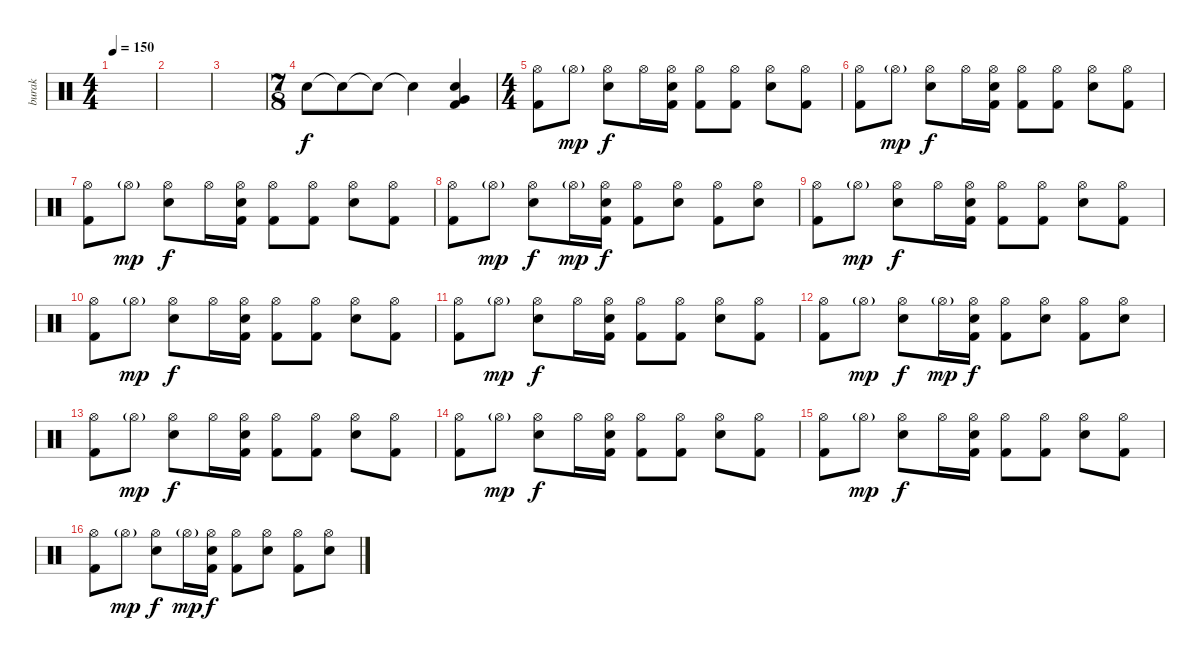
\track ("burak" "burak") {instrument percussion}
\staff {score}
\articulation defaults
\ts (4 4)
\tempo 150
\clef neutral
\ks c
|
|
|
\ts (7 8)
"Snare (hit)".8 "Snare (hit)"{t}.8 "Snare (hit)"{t}.8 "Snare (hit)"{t}.4 ("Electric Snare (hit)" "Kick (hit) 2" "Very Low Tom (hit)").4 |
\ts (4 4)
("Hi-Hat (open)" "Kick (hit) 2").8 "Hi-Hat (open)"{g}.8{dy mp} ("Hi-Hat (open)" "Electric Snare (hit)").8{dy f} "Hi-Hat (open)".16 ("Hi-Hat (open)" "Kick (hit) 2" "Electric Snare (hit)").16 ("Hi-Hat (open)" "Kick (hit) 2").8 ("Hi-Hat (open)" "Kick (hit) 2").8 ("Hi-Hat (open)" "Electric Snare (hit)").8 ("Hi-Hat (open)" "Kick (hit) 2").8 |
("Hi-Hat (open)" "Kick (hit) 2").8 "Hi-Hat (open)"{g}.8{dy mp} ("Hi-Hat (open)" "Electric Snare (hit)").8{dy f} "Hi-Hat (open)".16 ("Hi-Hat (open)" "Kick (hit) 2" "Electric Snare (hit)").16 ("Hi-Hat (open)" "Kick (hit) 2").8 ("Hi-Hat (open)" "Kick (hit) 2").8 ("Hi-Hat (open)" "Electric Snare (hit)").8 ("Hi-Hat (open)" "Kick (hit) 2").8 |
("Hi-Hat (open)" "Kick (hit) 2").8 "Hi-Hat (open)"{g}.8{dy mp} ("Hi-Hat (open)" "Electric Snare (hit)").8{dy f} "Hi-Hat (open)".16 ("Hi-Hat (open)" "Kick (hit) 2" "Electric Snare (hit)").16 ("Hi-Hat (open)" "Kick (hit) 2").8 ("Hi-Hat (open)" "Kick (hit) 2").8 ("Hi-Hat (open)" "Electric Snare (hit)").8 ("Hi-Hat (open)" "Kick (hit) 2").8 |
("Hi-Hat (open)" "Kick (hit) 2").8 "Hi-Hat (open)"{g}.8{dy mp} ("Hi-Hat (open)" "Electric Snare (hit)").8{dy f} "Hi-Hat (open)"{g}.16{dy mp} ("Hi-Hat (open)" "Kick (hit) 2" "Electric Snare (hit)").16{dy f} ("Hi-Hat (open)" "Kick (hit) 2").8 ("Hi-Hat (open)" "Electric Snare (hit)").8 ("Hi-Hat (open)" "Kick (hit) 2").8 ("Hi-Hat (open)" "Electric Snare (hit)").8 |
("Hi-Hat (open)" "Kick (hit) 2").8 "Hi-Hat (open)"{g}.8{dy mp} ("Hi-Hat (open)" "Electric Snare (hit)").8{dy f} "Hi-Hat (open)".16 ("Hi-Hat (open)" "Kick (hit) 2" "Electric Snare (hit)").16 ("Hi-Hat (open)" "Kick (hit) 2").8 ("Hi-Hat (open)" "Kick (hit) 2").8 ("Hi-Hat (open)" "Electric Snare (hit)").8 ("Hi-Hat (open)" "Kick (hit) 2").8 |
("Hi-Hat (open)" "Kick (hit) 2").8 "Hi-Hat (open)"{g}.8{dy mp} ("Hi-Hat (open)" "Electric Snare (hit)").8{dy f} "Hi-Hat (open)".16 ("Hi-Hat (open)" "Kick (hit) 2" "Electric Snare (hit)").16 ("Hi-Hat (open)" "Kick (hit) 2").8 ("Hi-Hat (open)" "Kick (hit) 2").8 ("Hi-Hat (open)" "Electric Snare (hit)").8 ("Hi-Hat (open)" "Kick (hit) 2").8 |
("Hi-Hat (open)" "Kick (hit) 2").8 "Hi-Hat (open)"{g}.8{dy mp} ("Hi-Hat (open)" "Electric Snare (hit)").8{dy f} "Hi-Hat (open)".16 ("Hi-Hat (open)" "Kick (hit) 2" "Electric Snare (hit)").16 ("Hi-Hat (open)" "Kick (hit) 2").8 ("Hi-Hat (open)" "Kick (hit) 2").8 ("Hi-Hat (open)" "Electric Snare (hit)").8 ("Hi-Hat (open)" "Kick (hit) 2").8 |
("Hi-Hat (open)" "Kick (hit) 2").8 "Hi-Hat (open)"{g}.8{dy mp} ("Hi-Hat (open)" "Electric Snare (hit)").8{dy f} "Hi-Hat (open)"{g}.16{dy mp} ("Hi-Hat (open)" "Kick (hit) 2" "Electric Snare (hit)").16{dy f} ("Hi-Hat (open)" "Kick (hit) 2").8 ("Hi-Hat (open)" "Electric Snare (hit)").8 ("Hi-Hat (open)" "Kick (hit) 2").8 ("Hi-Hat (open)" "Electric Snare (hit)").8 |
("Hi-Hat (open)" "Kick (hit) 2").8 "Hi-Hat (open)"{g}.8{dy mp} ("Hi-Hat (open)" "Electric Snare (hit)").8{dy f} "Hi-Hat (open)".16 ("Hi-Hat (open)" "Kick (hit) 2" "Electric Snare (hit)").16 ("Hi-Hat (open)" "Kick (hit) 2").8 ("Hi-Hat (open)" "Kick (hit) 2").8 ("Hi-Hat (open)" "Electric Snare (hit)").8 ("Hi-Hat (open)" "Kick (hit) 2").8 |
("Hi-Hat (open)" "Kick (hit) 2").8 "Hi-Hat (open)"{g}.8{dy mp} ("Hi-Hat (open)" "Electric Snare (hit)").8{dy f} "Hi-Hat (open)".16 ("Hi-Hat (open)" "Kick (hit) 2" "Electric Snare (hit)").16 ("Hi-Hat (open)" "Kick (hit) 2").8 ("Hi-Hat (open)" "Kick (hit) 2").8 ("Hi-Hat (open)" "Electric Snare (hit)").8 ("Hi-Hat (open)" "Kick (hit) 2").8 |
("Hi-Hat (open)" "Kick (hit) 2").8 "Hi-Hat (open)"{g}.8{dy mp} ("Hi-Hat (open)" "Electric Snare (hit)").8{dy f} "Hi-Hat (open)".16 ("Hi-Hat (open)" "Kick (hit) 2" "Electric Snare (hit)").16 ("Hi-Hat (open)" "Kick (hit) 2").8 ("Hi-Hat (open)" "Kick (hit) 2").8 ("Hi-Hat (open)" "Electric Snare (hit)").8 ("Hi-Hat (open)" "Kick (hit) 2").8 |
("Hi-Hat (open)" "Kick (hit) 2").8 "Hi-Hat (open)"{g}.8{dy mp} ("Hi-Hat (open)" "Electric Snare (hit)").8{dy f} "Hi-Hat (open)"{g}.16{dy mp} ("Hi-Hat (open)" "Kick (hit) 2" "Electric Snare (hit)").16{dy f} ("Hi-Hat (open)" "Kick (hit) 2").8 ("Hi-Hat (open)" "Electric Snare (hit)").8 ("Hi-Hat (open)" "Kick (hit) 2").8 ("Hi-Hat (open)" "Electric Snare (hit)").8
